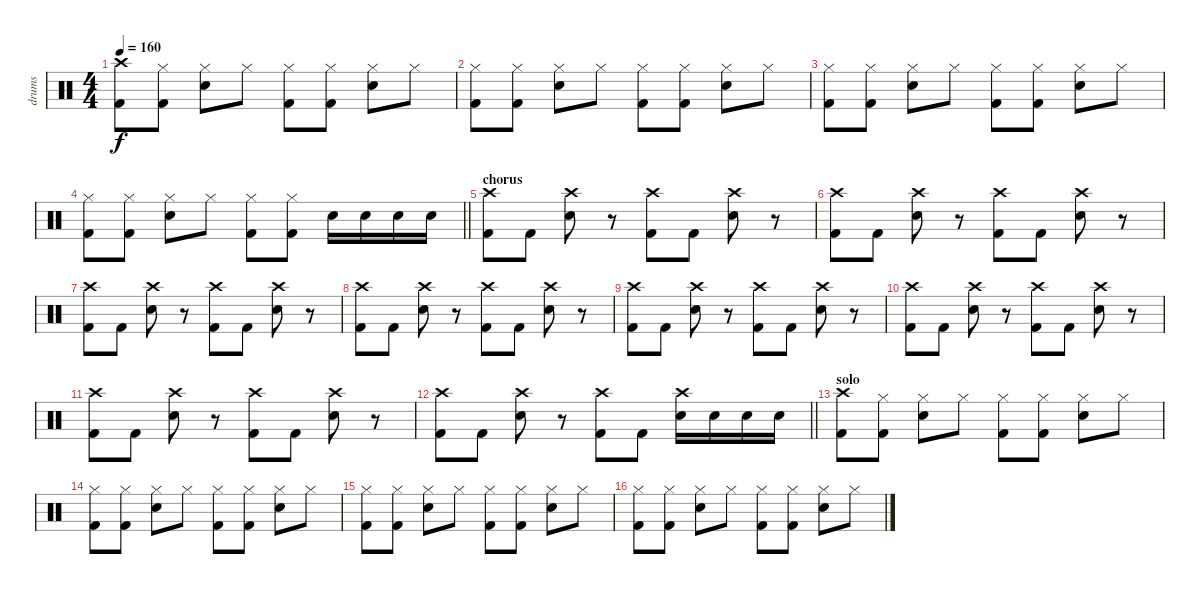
\track ("drums" "drums") {instrument percussion}
\staff {score}
\articulation defaults
\ts (4 4)
\tempo 160
\clef neutral
\ks c
("Crash high (hit)" "Kick (hit) 2").8{dy f} ("Hi-Hat (closed)" "Kick (hit) 2").8 ("Hi-Hat (closed)" "Electric Snare (hit)").8 "Hi-Hat (closed)".8 ("Hi-Hat (closed)" "Kick (hit) 2").8 ("Hi-Hat (closed)" "Kick (hit) 2").8 ("Hi-Hat (closed)" "Electric Snare (hit)").8 "Hi-Hat (closed)".8 |
("Hi-Hat (closed)" "Kick (hit) 2").8 ("Hi-Hat (closed)" "Kick (hit) 2").8 ("Hi-Hat (closed)" "Electric Snare (hit)").8 "Hi-Hat (closed)".8 ("Hi-Hat (closed)" "Kick (hit) 2").8 ("Hi-Hat (closed)" "Kick (hit) 2").8 ("Hi-Hat (closed)" "Electric Snare (hit)").8 "Hi-Hat (closed)".8 |
("Hi-Hat (closed)" "Kick (hit) 2").8 ("Hi-Hat (closed)" "Kick (hit) 2").8 ("Hi-Hat (closed)" "Electric Snare (hit)").8 "Hi-Hat (closed)".8 ("Hi-Hat (closed)" "Kick (hit) 2").8 ("Hi-Hat (closed)" "Kick (hit) 2").8 ("Hi-Hat (closed)" "Electric Snare (hit)").8 "Hi-Hat (closed)".8 |
\barLineRight lightlight
("Hi-Hat (closed)" "Kick (hit) 2").8 ("Hi-Hat (closed)" "Kick (hit) 2").8 ("Hi-Hat (closed)" "Electric Snare (hit)").8 "Hi-Hat (closed)".8 ("Hi-Hat (closed)" "Kick (hit) 2").8 ("Hi-Hat (closed)" "Kick (hit) 2").8 "Electric Snare (hit)".16 "Electric Snare (hit)".16 "Electric Snare (hit)".16 "Electric Snare (hit)".16 |
\section ("" "chorus")
("Crash high (hit)" "Kick (hit) 2").8 "Kick (hit) 2".8 ("Crash high (hit)" "Electric Snare (hit)").8 r.8 ("Crash high (hit)" "Kick (hit) 2").8 "Kick (hit) 2".8 ("Crash high (hit)" "Electric Snare (hit)").8 r.8 |
("Crash high (hit)" "Kick (hit) 2").8 "Kick (hit) 2".8 ("Crash high (hit)" "Electric Snare (hit)").8 r.8 ("Crash high (hit)" "Kick (hit) 2").8 "Kick (hit) 2".8 ("Crash high (hit)" "Electric Snare (hit)").8 r.8 |
("Crash high (hit)" "Kick (hit) 2").8 "Kick (hit) 2".8 ("Crash high (hit)" "Electric Snare (hit)").8 r.8 ("Crash high (hit)" "Kick (hit) 2").8 "Kick (hit) 2".8 ("Crash high (hit)" "Electric Snare (hit)").8 r.8 |
("Crash high (hit)" "Kick (hit) 2").8 "Kick (hit) 2".8 ("Crash high (hit)" "Electric Snare (hit)").8 r.8 ("Crash high (hit)" "Kick (hit) 2").8 "Kick (hit) 2".8 ("Crash high (hit)" "Electric Snare (hit)").8 r.8 |
("Crash high (hit)" "Kick (hit) 2").8 "Kick (hit) 2".8 ("Crash high (hit)" "Electric Snare (hit)").8 r.8 ("Crash high (hit)" "Kick (hit) 2").8 "Kick (hit) 2".8 ("Crash high (hit)" "Electric Snare (hit)").8 r.8 |
("Crash high (hit)" "Kick (hit) 2").8 "Kick (hit) 2".8 ("Crash high (hit)" "Electric Snare (hit)").8 r.8 ("Crash high (hit)" "Kick (hit) 2").8 "Kick (hit) 2".8 ("Crash high (hit)" "Electric Snare (hit)").8 r.8 |
("Crash high (hit)" "Kick (hit) 2").8 "Kick (hit) 2".8 ("Crash high (hit)" "Electric Snare (hit)").8 r.8 ("Crash high (hit)" "Kick (hit) 2").8 "Kick (hit) 2".8 ("Crash high (hit)" "Electric Snare (hit)").8 r.8 |
\barLineRight lightlight
("Crash high (hit)" "Kick (hit) 2").8 "Kick (hit) 2".8 ("Crash high (hit)" "Electric Snare (hit)").8 r.8 ("Crash high (hit)" "Kick (hit) 2").8 "Kick (hit) 2".8 ("Crash high (hit)" "Electric Snare (hit)").16 "Electric Snare (hit)".16 "Electric Snare (hit)".16 "Electric Snare (hit)".16 |
\section ("" "solo")
("Crash high (hit)" "Kick (hit) 2").8 ("Hi-Hat (closed)" "Kick (hit) 2").8 ("Hi-Hat (closed)" "Electric Snare (hit)").8 "Hi-Hat (closed)".8 ("Hi-Hat (closed)" "Kick (hit) 2").8 ("Hi-Hat (closed)" "Kick (hit) 2").8 ("Hi-Hat (closed)" "Electric Snare (hit)").8 "Hi-Hat (closed)".8 |
("Hi-Hat (closed)" "Kick (hit) 2").8 ("Hi-Hat (closed)" "Kick (hit) 2").8 ("Hi-Hat (closed)" "Electric Snare (hit)").8 "Hi-Hat (closed)".8 ("Hi-Hat (closed)" "Kick (hit) 2").8 ("Hi-Hat (closed)" "Kick (hit) 2").8 ("Hi-Hat (closed)" "Electric Snare (hit)").8 "Hi-Hat (closed)".8 |
("Hi-Hat (closed)" "Kick (hit) 2").8 ("Hi-Hat (closed)" "Kick (hit) 2").8 ("Hi-Hat (closed)" "Electric Snare (hit)").8 "Hi-Hat (closed)".8 ("Hi-Hat (closed)" "Kick (hit) 2").8 ("Hi-Hat (closed)" "Kick (hit) 2").8 ("Hi-Hat (closed)" "Electric Snare (hit)").8 "Hi-Hat (closed)".8 |
("Hi-Hat (closed)" "Kick (hit) 2").8 ("Hi-Hat (closed)" "Kick (hit) 2").8 ("Hi-Hat (closed)" "Electric Snare (hit)").8 "Hi-Hat (closed)".8 ("Hi-Hat (closed)" "Kick (hit) 2").8 ("Hi-Hat (closed)" "Kick (hit) 2").8 ("Hi-Hat (closed)" "Electric Snare (hit)").8 "Hi-Hat (closed)".8
